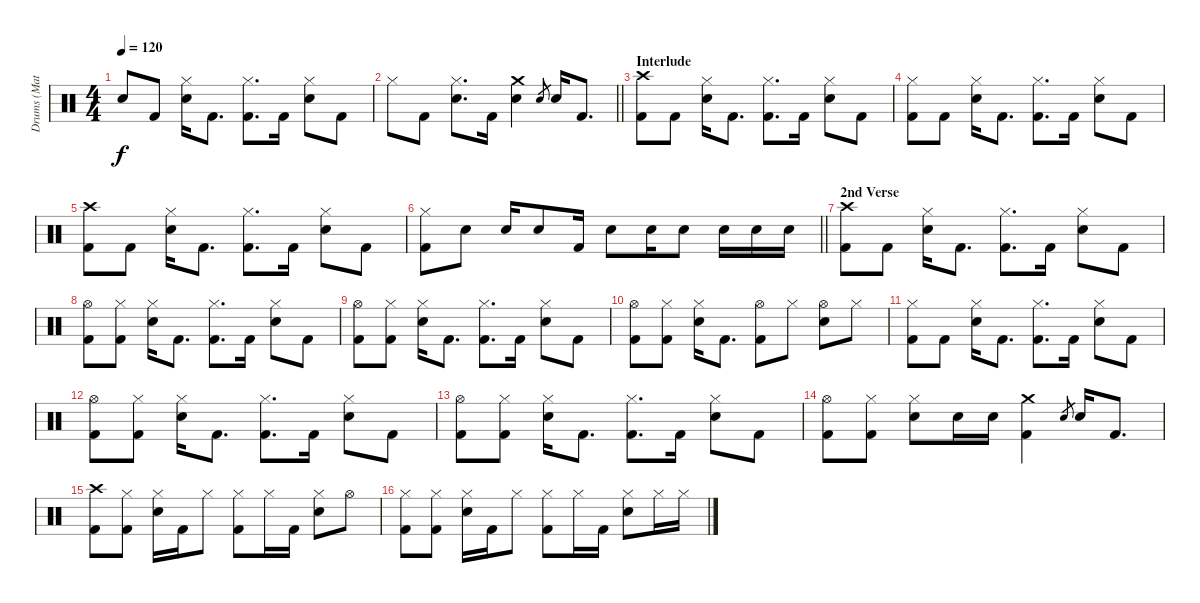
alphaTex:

\track ("Drums (Matt)" "Drums (Mat") {instrument percussion}
\staff {score}
\articulation defaults
\ts (4 4)
\tempo 120
\clef neutral
\ks c "Snare (hit)"{t}.8{dy f} "Kick (hit) 2".8
("Hi-Hat (closed)" "Snare (hit) 2").16 "Kick (hit) 2".8{d} ("Hi-Hat (closed)" "Kick (hit) 2").8{d} "Kick (hit) 2".16 ("Hi-Hat (closed)" "Snare (hit) 2").8 "Kick (hit) 2".8 |
\barLineRight lightlight "Hi-Hat (closed)".8 "Kick (hit) 2".8
("Hi-Hat (closed)" "Snare (hit) 2").8{d} "Kick (hit) 2".16 ("Crash medium (hit)" "Snare (hit) 2").4 "Snare (hit) 2".8{gr} "Snare (hit) 2".16 "Kick (hit) 2".8{d} |
\section ("" "Interlude")
("Crash high (hit)" "Kick (hit) 2").8 "Kick (hit) 2".8 ("Hi-Hat (closed)" "Snare (hit) 2").16 "Kick (hit) 2".8{d} ("Hi-Hat (closed)" "Kick (hit) 2").8{d} "Kick (hit) 2".16 ("Hi-Hat (closed)" "Snare (hit) 2").8 "Kick (hit) 2".8 |
("Hi-Hat (closed)" "Kick (hit) 2").8 "Kick (hit) 2".8 ("Hi-Hat (closed)" "Snare (hit) 2").16 "Kick (hit) 2".8{d} ("Hi-Hat (closed)" "Kick (hit) 2").8{d} "Kick (hit) 2".16 ("Hi-Hat (closed)" "Snare (hit) 2").8 "Kick (hit) 2".8 |
("Crash high (hit)" "Kick (hit) 2").8 "Kick (hit) 2".8 ("Hi-Hat (closed)" "Snare (hit) 2").16 "Kick (hit) 2".8{d} ("Hi-Hat (closed)" "Kick (hit) 2").8{d} "Kick (hit) 2".16 ("Hi-Hat (closed)" "Snare (hit) 2").8 "Kick (hit) 2".8 |
\barLineRight lightlight
("Hi-Hat (closed)" "Kick (hit) 2").8 "Snare (hit) 2".8 "Snare (hit) 2".16 "Snare (hit) 2".8 "Kick (hit) 2".16 "Snare (hit) 2".8 "Snare (hit) 2".16 "Snare (hit) 2".8 "Snare (hit) 2".16 "Snare (hit) 2".16 "Snare (hit) 2".16 |
\section ("" "2nd Verse")
("Crash high (hit)" "Kick (hit) 2").8 "Kick (hit) 2".8 ("Hi-Hat (closed)" "Snare (hit) 2").16 "Kick (hit) 2".8{d} ("Hi-Hat (closed)" "Kick (hit) 2").8{d} "Kick (hit) 2".16 ("Hi-Hat (closed)" "Snare (hit) 2").8 "Kick (hit) 2".8 |
("Hi-Hat (open)" "Kick (hit) 2").8 ("Hi-Hat (closed)" "Kick (hit) 2").8 ("Hi-Hat (closed)" "Snare (hit) 2").16 "Kick (hit) 2".8{d} ("Hi-Hat (closed)" "Kick (hit) 2").8{d} "Kick (hit) 2".16 ("Hi-Hat (closed)" "Snare (hit) 2").8 "Kick (hit) 2".8 |
("Hi-Hat (open)" "Kick (hit) 2").8 ("Hi-Hat (closed)" "Kick (hit) 2").8 ("Hi-Hat (closed)" "Snare (hit) 2").16 "Kick (hit) 2".8{d} ("Hi-Hat (closed)" "Kick (hit) 2").8{d} "Kick (hit) 2".16 ("Hi-Hat (closed)" "Snare (hit) 2").8 "Kick (hit) 2".8 |
("Hi-Hat (open)" "Kick (hit) 2").8 ("Hi-Hat (closed)" "Kick (hit) 2").8 ("Hi-Hat (closed)" "Snare (hit) 2").16 "Kick (hit) 2".8{d} ("Hi-Hat (open)" "Kick (hit) 2").8 "Hi-Hat (closed)".8 ("Hi-Hat (open)" "Snare (hit) 2").8 "Hi-Hat (closed)".8 |
("Hi-Hat (closed)" "Kick (hit) 2").8 "Kick (hit) 2".8 ("Hi-Hat (closed)" "Snare (hit) 2").16 "Kick (hit) 2".8{d} ("Hi-Hat (closed)" "Kick (hit) 2").8{d} "Kick (hit) 2".16 ("Hi-Hat (closed)" "Snare (hit) 2").8 "Kick (hit) 2".8 |
("Hi-Hat (open)" "Kick (hit) 2").8 ("Hi-Hat (closed)" "Kick (hit) 2").8 ("Hi-Hat (closed)" "Snare (hit) 2").16 "Kick (hit) 2".8{d} ("Hi-Hat (closed)" "Kick (hit) 2").8{d} "Kick (hit) 2".16 ("Hi-Hat (closed)" "Snare (hit) 2").8 "Kick (hit) 2".8 |
("Hi-Hat (open)" "Kick (hit) 2").8 ("Hi-Hat (closed)" "Kick (hit) 2").8 ("Hi-Hat (closed)" "Snare (hit) 2").16 "Kick (hit) 2".8{d} ("Hi-Hat (closed)" "Kick (hit) 2").8{d} "Kick (hit) 2".16 ("Hi-Hat (closed)" "Snare (hit) 2").8 "Kick (hit) 2".8 |
("Hi-Hat (open)" "Kick (hit) 2").8 ("Hi-Hat (closed)" "Kick (hit) 2").8 ("Hi-Hat (closed)" "Snare (hit) 2").8 "Snare (hit) 2".16 "Snare (hit) 2".16 ("Crash medium (hit)" "Kick (hit) 2").4 "Snare (hit) 2".8{gr} "Snare (hit) 2".16 "Kick (hit) 2".8{d} |
("Crash high (hit)" "Kick (hit) 2").8 ("Hi-Hat (closed)" "Kick (hit) 2").8 ("Hi-Hat (closed)" "Snare (hit) 2").16 "Kick (hit) 2".16 "Hi-Hat (closed)".8 ("Hi-Hat (closed)" "Kick (hit) 2").8 "Hi-Hat (closed)".16 "Kick (hit) 2".16 ("Hi-Hat (closed)" "Snare (hit) 2").8 "Hi-Hat (open)".8 |
("Hi-Hat (closed)" "Kick (hit) 2").8 ("Hi-Hat (closed)" "Kick (hit) 2").8 ("Hi-Hat (closed)" "Snare (hit) 2").16 "Kick (hit) 2".16 "Hi-Hat (closed)".8 ("Hi-Hat (closed)" "Kick (hit) 2").8 "Hi-Hat (closed)".16 "Kick (hit) 2".16 ("Hi-Hat (closed)" "Snare (hit) 2").8 "Hi-Hat (closed)".16 "Hi-Hat (closed)".16
